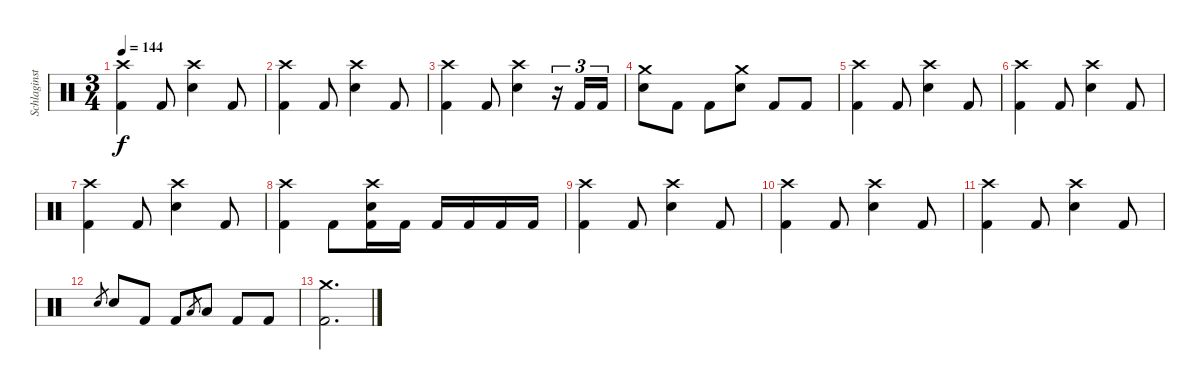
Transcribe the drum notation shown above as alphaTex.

\track ("Schlaginstrumente - Auswahl" "Schlaginst") {instrument percussion}
\staff {score}
\articulation defaults
\ts (3 4)
\tempo 144
\clef neutral
\ks c
("Crash high (hit)" "Kick (hit) 2").4{dy f} "Kick (hit) 2".8 ("Crash high (hit)" "Snare (hit) 2").4 "Kick (hit) 2".8 |
("Crash high (hit)" "Kick (hit) 2").4 "Kick (hit) 2".8 ("Crash high (hit)" "Snare (hit) 2").4 "Kick (hit) 2".8 |
("Crash high (hit)" "Kick (hit) 2").4 "Kick (hit) 2".8 ("Crash high (hit)" "Snare (hit) 2").4 r.16{tu (3 2)} "Kick (hit) 2".16{tu (3 2)} "Kick (hit) 2".16{tu (3 2)} |
("Crash medium (hit)" "Snare (hit) 2").8 "Kick (hit) 2".8 "Kick (hit) 2".8 ("Crash medium (hit)" "Snare (hit) 2").8 "Kick (hit) 2".8 "Kick (hit) 2".8 |
("Crash high (hit)" "Kick (hit) 2").4 "Kick (hit) 2".8 ("Crash high (hit)" "Snare (hit) 2").4 "Kick (hit) 2".8 |
("Crash high (hit)" "Kick (hit) 2").4 "Kick (hit) 2".8 ("Crash high (hit)" "Snare (hit) 2").4 "Kick (hit) 2".8 |
("Crash high (hit)" "Kick (hit) 2").4 "Kick (hit) 2".8 ("Crash high (hit)" "Snare (hit) 2").4 "Kick (hit) 2".8 |
("Crash high (hit)" "Kick (hit) 2").4 "Kick (hit) 2".8 ("Crash high (hit)" "Snare (hit) 2" "Kick (hit) 2").16 "Kick (hit) 2".16 "Kick (hit) 2".16 "Kick (hit) 2".16 "Kick (hit) 2".16 "Kick (hit) 2".16 |
("Crash high (hit)" "Kick (hit) 2").4 "Kick (hit) 2".8 ("Crash high (hit)" "Snare (hit) 2").4 "Kick (hit) 2".8 |
("Crash high (hit)" "Kick (hit) 2").4 "Kick (hit) 2".8 ("Crash high (hit)" "Snare (hit) 2").4 "Kick (hit) 2".8 |
("Crash high (hit)" "Kick (hit) 2").4 "Kick (hit) 2".8 ("Crash high (hit)" "Snare (hit) 2").4 "Kick (hit) 2".8 |
"Snare (hit) 2".8{gr} "Snare (hit) 2".8 "Kick (hit) 2".8 "Kick (hit) 2".8 "Low Tom (hit)".8{gr} "Low Tom (hit)".8 "Kick (hit) 2".8 "Kick (hit) 2".8 |
("Crash medium (hit)" "Kick (hit) 2").2{d}
